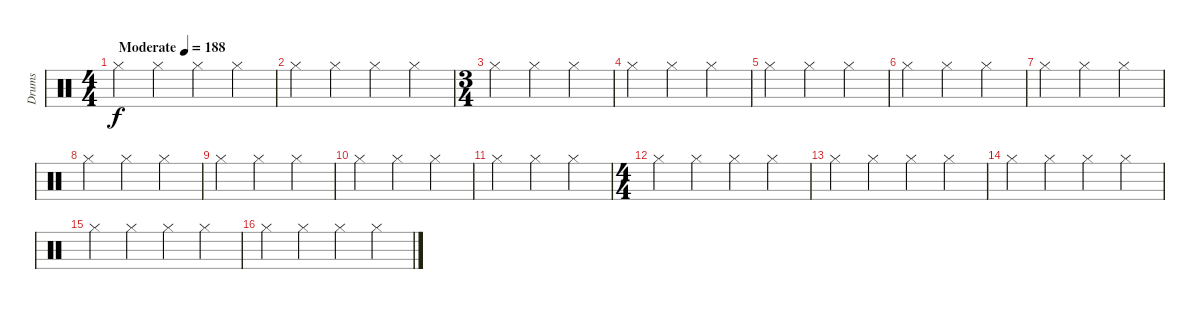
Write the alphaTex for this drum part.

\track ("Drums" "Drums") {instrument percussion}
\staff {score}
\articulation defaults
\ts (4 4)
\tempo (188 "Moderate")
\clef neutral
\ks c "Hi-Hat (closed)".4{dy f} "Hi-Hat (closed)".4 "Hi-Hat (closed)".4 "Hi-Hat (closed)".4
|
"Hi-Hat (closed)".4 "Hi-Hat (closed)".4 "Hi-Hat (closed)".4 "Hi-Hat (closed)".4 |
\ts (3 4)
"Hi-Hat (closed)".4 "Hi-Hat (closed)".4 "Hi-Hat (closed)".4 |
"Hi-Hat (closed)".4 "Hi-Hat (closed)".4 "Hi-Hat (closed)".4 |
"Hi-Hat (closed)".4 "Hi-Hat (closed)".4 "Hi-Hat (closed)".4 |
"Hi-Hat (closed)".4 "Hi-Hat (closed)".4 "Hi-Hat (closed)".4 |
"Hi-Hat (closed)".4 "Hi-Hat (closed)".4 "Hi-Hat (closed)".4 |
"Hi-Hat (closed)".4 "Hi-Hat (closed)".4 "Hi-Hat (closed)".4 |
"Hi-Hat (closed)".4 "Hi-Hat (closed)".4 "Hi-Hat (closed)".4 |
"Hi-Hat (closed)".4 "Hi-Hat (closed)".4 "Hi-Hat (closed)".4 |
"Hi-Hat (closed)".4 "Hi-Hat (closed)".4 "Hi-Hat (closed)".4 |
\ts (4 4)
"Hi-Hat (closed)".4 "Hi-Hat (closed)".4 "Hi-Hat (closed)".4 "Hi-Hat (closed)".4 |
"Hi-Hat (closed)".4 "Hi-Hat (closed)".4 "Hi-Hat (closed)".4 "Hi-Hat (closed)".4 |
"Hi-Hat (closed)".4 "Hi-Hat (closed)".4 "Hi-Hat (closed)".4 "Hi-Hat (closed)".4 |
"Hi-Hat (closed)".4 "Hi-Hat (closed)".4 "Hi-Hat (closed)".4 "Hi-Hat (closed)".4 |
"Hi-Hat (closed)".4 "Hi-Hat (closed)".4 "Hi-Hat (closed)".4 "Hi-Hat (closed)".4
